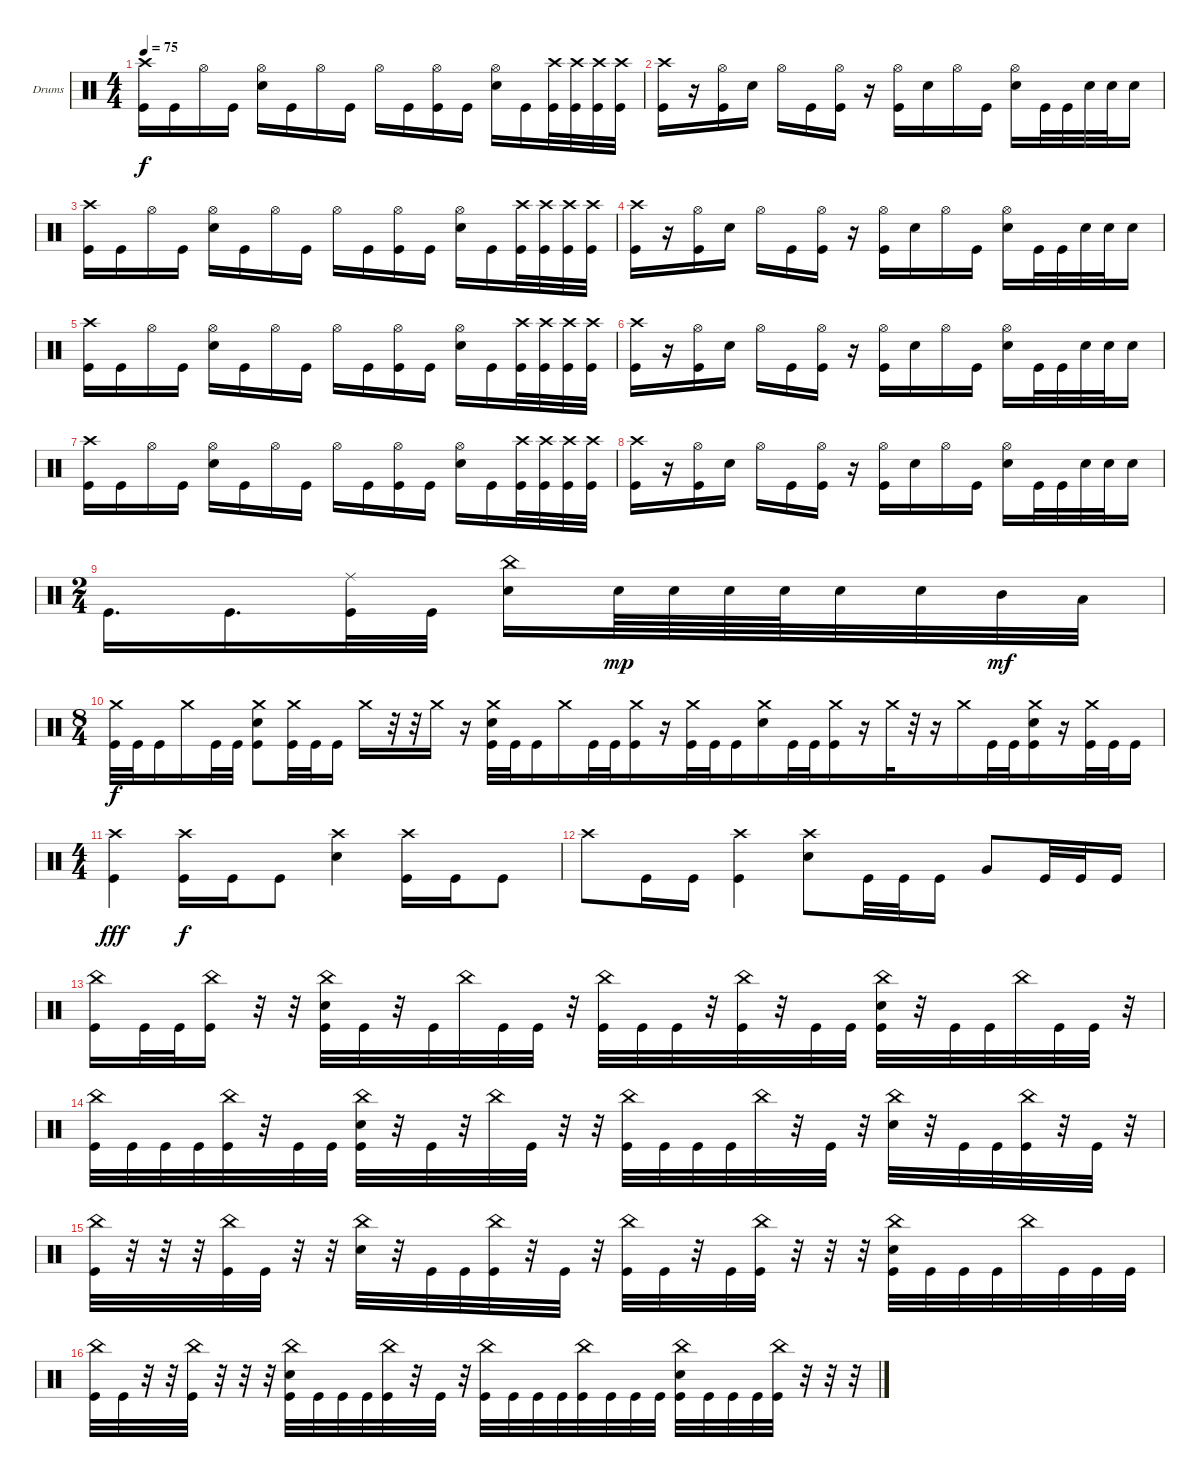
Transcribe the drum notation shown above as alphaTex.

\bracketExtendMode groupsimilarinstruments
\firstSystemTrackNameOrientation horizontal
\otherSystemsTrackNameOrientation horizontal
\track ("Drumkit" "Drums") {instrument percussion}
\staff {score}
\articulation defaults
\ts (4 4)
\tempo 75
\clef neutral
\ks c
("Kick (hit)" "Crash high (hit)").16{dy f} "Kick (hit)".16 "Hi-Hat (open)".16 "Kick (hit)".16 ("Snare (hit) 2" "Hi-Hat (open)").16 "Kick (hit)".16 "Hi-Hat (open)".16 "Kick (hit)".16 "Hi-Hat (open)".16 "Kick (hit)".16 ("Hi-Hat (open)" "Kick (hit)").16 "Kick (hit)".16 ("Snare (hit) 2" "Hi-Hat (open)").16 "Kick (hit)".16 ("Crash high (hit)" "Kick (hit)").32 ("Crash high (hit)" "Kick (hit)").32 ("Crash high (hit)" "Kick (hit)").32 ("Crash high (hit)" "Kick (hit)").32 |
("Crash high (hit)" "Kick (hit)").16 r.16 ("Kick (hit)" "Hi-Hat (open)").16 "Snare (hit) 2".16 "Hi-Hat (open)".16 "Kick (hit)".16 ("Kick (hit)" "Hi-Hat (open)").16 r.16 ("Kick (hit)" "Hi-Hat (open)").16 "Snare (hit) 2".16 "Hi-Hat (open)".16 "Kick (hit)".16 ("Snare (hit) 2" "Hi-Hat (open)").16 "Kick (hit)".32 "Kick (hit)".32 "Snare (hit) 2".32 "Snare (hit) 2".32 "Snare (hit) 2".16 |
("Kick (hit)" "Crash high (hit)").16 "Kick (hit)".16 "Hi-Hat (open)".16 "Kick (hit)".16 ("Snare (hit) 2" "Hi-Hat (open)").16 "Kick (hit)".16 "Hi-Hat (open)".16 "Kick (hit)".16 "Hi-Hat (open)".16 "Kick (hit)".16 ("Hi-Hat (open)" "Kick (hit)").16 "Kick (hit)".16 ("Snare (hit) 2" "Hi-Hat (open)").16 "Kick (hit)".16 ("Crash high (hit)" "Kick (hit)").32 ("Crash high (hit)" "Kick (hit)").32 ("Crash high (hit)" "Kick (hit)").32 ("Crash high (hit)" "Kick (hit)").32 |
("Crash high (hit)" "Kick (hit)").16 r.16 ("Kick (hit)" "Hi-Hat (open)").16 "Snare (hit) 2".16 "Hi-Hat (open)".16 "Kick (hit)".16 ("Kick (hit)" "Hi-Hat (open)").16 r.16 ("Kick (hit)" "Hi-Hat (open)").16 "Snare (hit) 2".16 "Hi-Hat (open)".16 "Kick (hit)".16 ("Snare (hit) 2" "Hi-Hat (open)").16 "Kick (hit)".32 "Kick (hit)".32 "Snare (hit) 2".32 "Snare (hit) 2".32 "Snare (hit) 2".16 |
("Kick (hit)" "Crash high (hit)").16 "Kick (hit)".16 "Hi-Hat (open)".16 "Kick (hit)".16 ("Snare (hit) 2" "Hi-Hat (open)").16 "Kick (hit)".16 "Hi-Hat (open)".16 "Kick (hit)".16 "Hi-Hat (open)".16 "Kick (hit)".16 ("Hi-Hat (open)" "Kick (hit)").16 "Kick (hit)".16 ("Snare (hit) 2" "Hi-Hat (open)").16 "Kick (hit)".16 ("Crash high (hit)" "Kick (hit)").32 ("Crash high (hit)" "Kick (hit)").32 ("Crash high (hit)" "Kick (hit)").32 ("Crash high (hit)" "Kick (hit)").32 |
("Crash high (hit)" "Kick (hit)").16 r.16 ("Kick (hit)" "Hi-Hat (open)").16 "Snare (hit) 2".16 "Hi-Hat (open)".16 "Kick (hit)".16 ("Kick (hit)" "Hi-Hat (open)").16 r.16 ("Kick (hit)" "Hi-Hat (open)").16 "Snare (hit) 2".16 "Hi-Hat (open)".16 "Kick (hit)".16 ("Snare (hit) 2" "Hi-Hat (open)").16 "Kick (hit)".32 "Kick (hit)".32 "Snare (hit) 2".32 "Snare (hit) 2".32 "Snare (hit) 2".16 |
("Kick (hit)" "Crash high (hit)").16 "Kick (hit)".16 "Hi-Hat (open)".16 "Kick (hit)".16 ("Snare (hit) 2" "Hi-Hat (open)").16 "Kick (hit)".16 "Hi-Hat (open)".16 "Kick (hit)".16 "Hi-Hat (open)".16 "Kick (hit)".16 ("Hi-Hat (open)" "Kick (hit)").16 "Kick (hit)".16 ("Snare (hit) 2" "Hi-Hat (open)").16 "Kick (hit)".16 ("Crash high (hit)" "Kick (hit)").32 ("Crash high (hit)" "Kick (hit)").32 ("Crash high (hit)" "Kick (hit)").32 ("Crash high (hit)" "Kick (hit)").32 |
("Crash high (hit)" "Kick (hit)").16 r.16 ("Kick (hit)" "Hi-Hat (open)").16 "Snare (hit) 2".16 "Hi-Hat (open)".16 "Kick (hit)".16 ("Kick (hit)" "Hi-Hat (open)").16 r.16 ("Kick (hit)" "Hi-Hat (open)").16 "Snare (hit) 2".16 "Hi-Hat (open)".16 "Kick (hit)".16 ("Snare (hit) 2" "Hi-Hat (open)").16 "Kick (hit)".32 "Kick (hit)".32 "Snare (hit) 2".32 "Snare (hit) 2".32 "Snare (hit) 2".16 |
\ts (2 4)
\beaming (8 2 2 2 2)
"Kick (hit)".16{d} "Kick (hit)".16{d} ("Kick (hit)" "Ride (middle)").32 "Kick (hit)".32 ("Snare (hit) 2" "China (hit)").16 "Snare (hit) 2".64{dy mp} "Snare (hit) 2".64 "Snare (hit) 2".64 "Snare (hit) 2".64 "Snare (hit) 2".32 "Snare (hit) 2".32 "Mid Tom (hit)".32{dy mf} "Low Tom (hit)".32 |
\ts (8 4)
\beaming (8 2 2 2 10)
("Kick (hit)" "Crash medium (hit)").32{dy f} "Kick (hit)".32 "Kick (hit)".16 "Crash medium (hit)".16 "Kick (hit)".32 "Kick (hit)".32 ("Kick (hit)" "Crash medium (hit)" "Snare (hit) 2").8 ("Kick (hit)" "Crash medium (hit)").32 "Kick (hit)".32 "Kick (hit)".16 "Crash medium (hit)".16 r.32 r.32 "Crash medium (hit)".16 r.16 ("Kick (hit)" "Crash medium (hit)" "Snare (hit) 2").32 "Kick (hit)".32 "Kick (hit)".16 "Crash medium (hit)".16 "Kick (hit)".32 "Kick (hit)".32 ("Kick (hit)" "Crash medium (hit)").16 r.16 ("Kick (hit)" "Crash medium (hit)").32 "Kick (hit)".32 "Kick (hit)".16 ("Crash medium (hit)" "Snare (hit) 2").16 "Kick (hit)".32 "Kick (hit)".32 ("Kick (hit)" "Crash medium (hit)").16 r.16 "Crash medium (hit)".32 r.32 r.16 "Crash medium (hit)".16 "Kick (hit)".32 "Kick (hit)".32 ("Kick (hit)" "Crash medium (hit)" "Snare (hit) 2").16 r.16 ("Kick (hit)" "Crash medium (hit)").32 "Kick (hit)".32 "Kick (hit)".16 |
\ts (4 4)
\beaming (8 2 2 2 2)
("Kick (hit)" "Crash high (hit)").4{dy fff} ("Kick (hit)" "Crash high (hit)").16{dy f} "Kick (hit)".16 "Kick (hit)".8 ("Crash high (hit)" "Snare (hit) 2").4 ("Kick (hit)" "Crash high (hit)").16 "Kick (hit)".16 "Kick (hit)".8 |
"Crash high (hit)".8 "Kick (hit)".16 "Kick (hit)".16 ("Kick (hit)" "Crash high (hit)").4 ("Crash high (hit)" "Snare (hit) 2").8 "Kick (hit)".32 "Kick (hit)".32 "Kick (hit)".16 "Very Low Tom (hit)".8 "Kick (hit)".32 "Kick (hit)".32 "Kick (hit)".16 |
("Kick (hit)" "China (hit)").16 "Kick (hit)".32 "Kick (hit)".32 ("Kick (hit)" "China (hit)").16 r.32 r.32 ("China (hit)" "Snare (hit) 2" "Kick (hit)").32 "Kick (hit)".32 r.32 "Kick (hit)".32 "China (hit)".32 "Kick (hit)".32 "Kick (hit)".32 r.32 ("China (hit)" "Kick (hit)").32 "Kick (hit)".32 "Kick (hit)".32 r.32 ("China (hit)" "Kick (hit)").32 r.32 "Kick (hit)".32 "Kick (hit)".32 ("China (hit)" "Snare (hit) 2" "Kick (hit)").32 r.32 "Kick (hit)".32 "Kick (hit)".32 "China (hit)".32 "Kick (hit)".32 "Kick (hit)".32 r.32 |
("Kick (hit)" "China (hit)").32 "Kick (hit)".32 "Kick (hit)".32 "Kick (hit)".32 ("China (hit)" "Kick (hit)").32 r.32 "Kick (hit)".32 "Kick (hit)".32 ("China (hit)" "Snare (hit) 2" "Kick (hit)").32 r.32 "Kick (hit)".32 r.32 "China (hit)".32 "Kick (hit)".32 r.32 r.32 ("China (hit)" "Kick (hit)").32 "Kick (hit)".32 "Kick (hit)".32 "Kick (hit)".32 "China (hit)".32 r.32 "Kick (hit)".32 r.32 ("China (hit)" "Snare (hit) 2").32 r.32 "Kick (hit)".32 "Kick (hit)".32 ("China (hit)" "Kick (hit)").32 r.32 "Kick (hit)".32 r.32 |
("Kick (hit)" "China (hit)").32 r.32 r.32 r.32 ("Kick (hit)" "China (hit)").32 "Kick (hit)".32 r.32 r.32 ("China (hit)" "Snare (hit) 2").32 r.32 "Kick (hit)".32 "Kick (hit)".32 ("China (hit)" "Kick (hit)").32 r.32 "Kick (hit)".32 r.32 ("China (hit)" "Kick (hit)").32 "Kick (hit)".32 r.32 "Kick (hit)".32 ("China (hit)" "Kick (hit)").32 r.32 r.32 r.32 ("China (hit)" "Snare (hit) 2" "Kick (hit)").32 "Kick (hit)".32 "Kick (hit)".32 "Kick (hit)".32 "China (hit)".32 "Kick (hit)".32 "Kick (hit)".32 "Kick (hit)".32 |
("China (hit)" "Kick (hit)").32 "Kick (hit)".32 r.32 r.32 ("China (hit)" "Kick (hit)").32 r.32 r.32 r.32 ("China (hit)" "Snare (hit) 2" "Kick (hit)").32 "Kick (hit)".32 "Kick (hit)".32 "Kick (hit)".32 ("China (hit)" "Kick (hit)").32 r.32 "Kick (hit)".32 r.32 ("China (hit)" "Kick (hit)").32 "Kick (hit)".32 "Kick (hit)".32 "Kick (hit)".32 ("China (hit)" "Kick (hit)").32 "Kick (hit)".32 "Kick (hit)".32 "Kick (hit)".32 ("China (hit)" "Snare (hit) 2" "Kick (hit)").32 "Kick (hit)".32 "Kick (hit)".32 "Kick (hit)".32 ("China (hit)" "Kick (hit)").32 r.32 r.32 r.32
